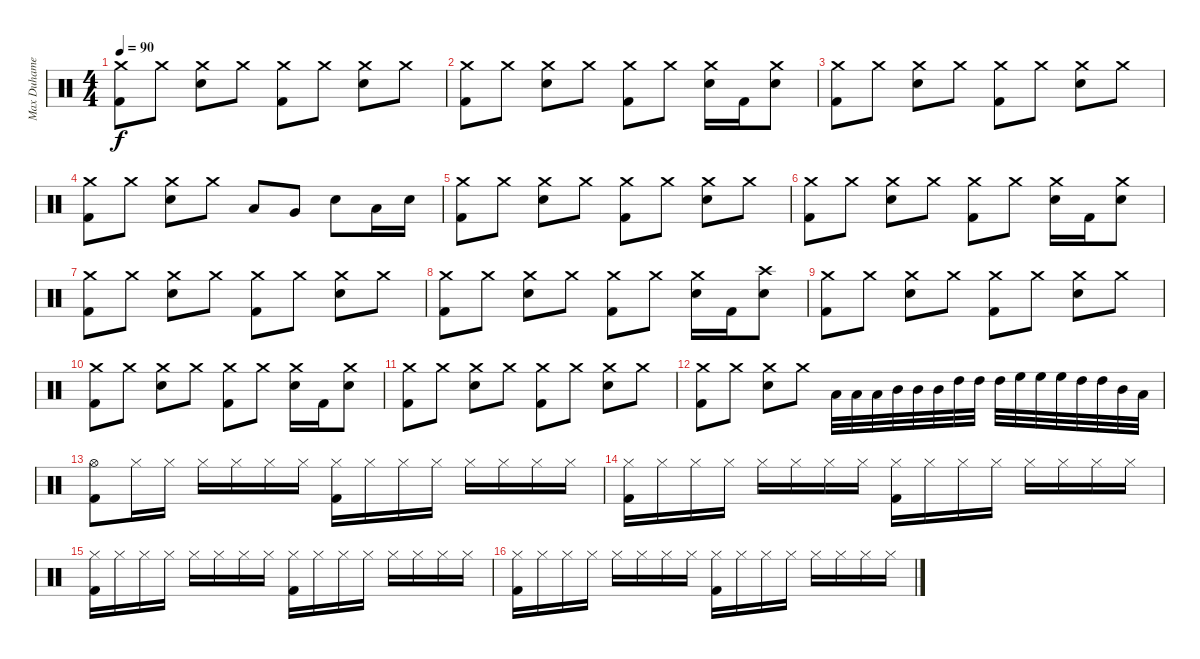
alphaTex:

\track ("Max Duhamel (Drums)" "Max Duhame") {instrument percussion}
\staff {score}
\articulation defaults
\ts (4 4)
\tempo 90
\clef neutral
\ks c
("Crash medium (hit)" "Kick (hit) 2").8{dy f} "Crash medium (hit)".8 ("Crash medium (hit)" "Snare (hit) 2").8 "Crash medium (hit)".8 ("Crash medium (hit)" "Kick (hit) 2").8 "Crash medium (hit)".8 ("Crash medium (hit)" "Snare (hit) 2").8 "Crash medium (hit)".8 |
("Crash medium (hit)" "Kick (hit) 2").8 "Crash medium (hit)".8 ("Crash medium (hit)" "Snare (hit) 2").8 "Crash medium (hit)".8 ("Crash medium (hit)" "Kick (hit) 2").8 "Crash medium (hit)".8 ("Crash medium (hit)" "Snare (hit) 2").16 "Kick (hit) 2".16 ("Crash medium (hit)" "Snare (hit) 2").8 |
("Crash medium (hit)" "Kick (hit) 2").8 "Crash medium (hit)".8 ("Crash medium (hit)" "Snare (hit) 2").8 "Crash medium (hit)".8 ("Crash medium (hit)" "Kick (hit) 2").8 "Crash medium (hit)".8 ("Crash medium (hit)" "Snare (hit) 2").8 "Crash medium (hit)".8 |
("Crash medium (hit)" "Kick (hit) 2").8 "Crash medium (hit)".8 ("Crash medium (hit)" "Snare (hit) 2").8 "Crash medium (hit)".8 "Low Tom (hit)".8 "Very Low Tom (hit)".8 "Snare (hit) 2".8 "Low Tom (hit)".16 "Snare (hit) 2".16 |
("Crash medium (hit)" "Kick (hit) 2").8 "Crash medium (hit)".8 ("Crash medium (hit)" "Snare (hit) 2").8 "Crash medium (hit)".8 ("Crash medium (hit)" "Kick (hit) 2").8 "Crash medium (hit)".8 ("Crash medium (hit)" "Snare (hit) 2").8 "Crash medium (hit)".8 |
("Crash medium (hit)" "Kick (hit) 2").8 "Crash medium (hit)".8 ("Crash medium (hit)" "Snare (hit) 2").8 "Crash medium (hit)".8 ("Crash medium (hit)" "Kick (hit) 2").8 "Crash medium (hit)".8 ("Crash medium (hit)" "Snare (hit) 2").16 "Kick (hit) 2".16 ("Crash medium (hit)" "Snare (hit) 2").8 |
("Crash medium (hit)" "Kick (hit) 2").8 "Crash medium (hit)".8 ("Crash medium (hit)" "Snare (hit) 2").8 "Crash medium (hit)".8 ("Crash medium (hit)" "Kick (hit) 2").8 "Crash medium (hit)".8 ("Crash medium (hit)" "Snare (hit) 2").8 "Crash medium (hit)".8 |
("Crash medium (hit)" "Kick (hit) 2").8 "Crash medium (hit)".8 ("Crash medium (hit)" "Snare (hit) 2").8 "Crash medium (hit)".8 ("Crash medium (hit)" "Kick (hit) 2").8 "Crash medium (hit)".8 ("Crash medium (hit)" "Snare (hit) 2").16 "Kick (hit) 2".16 ("Crash high (hit)" "Snare (hit) 2").8 |
("Crash medium (hit)" "Kick (hit) 2").8 "Crash medium (hit)".8 ("Crash medium (hit)" "Snare (hit) 2").8 "Crash medium (hit)".8 ("Crash medium (hit)" "Kick (hit) 2").8 "Crash medium (hit)".8 ("Crash medium (hit)" "Snare (hit) 2").8 "Crash medium (hit)".8 |
("Crash medium (hit)" "Kick (hit) 2").8 "Crash medium (hit)".8 ("Crash medium (hit)" "Snare (hit) 2").8 "Crash medium (hit)".8 ("Crash medium (hit)" "Kick (hit) 2").8 "Crash medium (hit)".8 ("Crash medium (hit)" "Snare (hit) 2").16 "Kick (hit) 2".16 ("Crash medium (hit)" "Snare (hit) 2").8 |
("Crash medium (hit)" "Kick (hit) 2").8 "Crash medium (hit)".8 ("Crash medium (hit)" "Snare (hit) 2").8 "Crash medium (hit)".8 ("Crash medium (hit)" "Kick (hit) 2").8 "Crash medium (hit)".8 ("Crash medium (hit)" "Snare (hit) 2").8 "Crash medium (hit)".8 |
("Crash medium (hit)" "Kick (hit) 2").8 "Crash medium (hit)".8 ("Crash medium (hit)" "Snare (hit) 2").8 "Crash medium (hit)".8 "Low Tom (hit)".32 "Low Tom (hit)".32 "Low Tom (hit)".32 "Mid Tom (hit)".32 "Mid Tom (hit)".32 "Mid Tom (hit)".32 "High Tom (hit)".32 "High Tom (hit)".32 "High Tom (hit)".32 "High Floor Tom (hit)".32 "High Floor Tom (hit)".32 "High Floor Tom (hit)".32 "High Tom (hit)".32 "High Tom (hit)".32 "Mid Tom (hit)".32 "Low Tom (hit)".32 |
("Hi-Hat (open)" "Kick (hit) 2").8 "Hi-Hat (closed)".16 "Hi-Hat (closed)".16 "Hi-Hat (closed)".16 "Hi-Hat (closed)".16 "Hi-Hat (closed)".16 "Hi-Hat (closed)".16 ("Hi-Hat (closed)" "Kick (hit) 2").16 "Hi-Hat (closed)".16 "Hi-Hat (closed)".16 "Hi-Hat (closed)".16 "Hi-Hat (closed)".16 "Hi-Hat (closed)".16 "Hi-Hat (closed)".16 "Hi-Hat (closed)".16 |
("Hi-Hat (closed)" "Kick (hit) 2").16 "Hi-Hat (closed)".16 "Hi-Hat (closed)".16 "Hi-Hat (closed)".16 "Hi-Hat (closed)".16 "Hi-Hat (closed)".16 "Hi-Hat (closed)".16 "Hi-Hat (closed)".16 ("Hi-Hat (closed)" "Kick (hit) 2").16 "Hi-Hat (closed)".16 "Hi-Hat (closed)".16 "Hi-Hat (closed)".16 "Hi-Hat (closed)".16 "Hi-Hat (closed)".16 "Hi-Hat (closed)".16 "Hi-Hat (closed)".16 |
("Hi-Hat (closed)" "Kick (hit) 2").16 "Hi-Hat (closed)".16 "Hi-Hat (closed)".16 "Hi-Hat (closed)".16 "Hi-Hat (closed)".16 "Hi-Hat (closed)".16 "Hi-Hat (closed)".16 "Hi-Hat (closed)".16 ("Hi-Hat (closed)" "Kick (hit) 2").16 "Hi-Hat (closed)".16 "Hi-Hat (closed)".16 "Hi-Hat (closed)".16 "Hi-Hat (closed)".16 "Hi-Hat (closed)".16 "Hi-Hat (closed)".16 "Hi-Hat (closed)".16 |
("Hi-Hat (closed)" "Kick (hit) 2").16 "Hi-Hat (closed)".16 "Hi-Hat (closed)".16 "Hi-Hat (closed)".16 "Hi-Hat (closed)".16 "Hi-Hat (closed)".16 "Hi-Hat (closed)".16 "Hi-Hat (closed)".16 ("Hi-Hat (closed)" "Kick (hit) 2").16 "Hi-Hat (closed)".16 "Hi-Hat (closed)".16 "Hi-Hat (closed)".16 "Hi-Hat (closed)".16 "Hi-Hat (closed)".16 "Hi-Hat (closed)".16 "Hi-Hat (closed)".16
